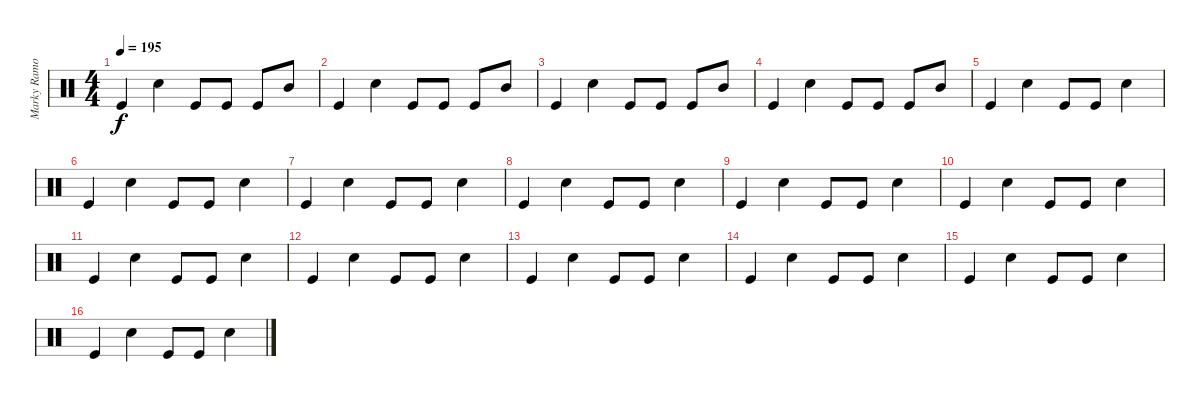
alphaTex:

\track ("Marky Ramone" "Marky Ramo") {instrument percussion}
\staff {score}
\articulation defaults
\ts (4 4)
\tempo 195
\clef neutral
\ks c "Kick (hit)".4{dy f} "Electric Snare (hit)".4 "Kick (hit)".8 "Kick (hit)".8 "Kick (hit)".8 "Mid Tom (hit)".8
|
"Kick (hit)".4 "Electric Snare (hit)".4 "Kick (hit)".8 "Kick (hit)".8 "Kick (hit)".8 "Mid Tom (hit)".8 |
"Kick (hit)".4 "Electric Snare (hit)".4 "Kick (hit)".8 "Kick (hit)".8 "Kick (hit)".8 "Mid Tom (hit)".8 |
"Kick (hit)".4 "Electric Snare (hit)".4 "Kick (hit)".8 "Kick (hit)".8 "Kick (hit)".8 "Mid Tom (hit)".8 |
"Kick (hit)".4 "Electric Snare (hit)".4 "Kick (hit)".8 "Kick (hit)".8 "Electric Snare (hit)".4 |
"Kick (hit)".4 "Electric Snare (hit)".4 "Kick (hit)".8 "Kick (hit)".8 "Electric Snare (hit)".4 |
"Kick (hit)".4 "Electric Snare (hit)".4 "Kick (hit)".8 "Kick (hit)".8 "Electric Snare (hit)".4 |
"Kick (hit)".4 "Electric Snare (hit)".4 "Kick (hit)".8 "Kick (hit)".8 "Electric Snare (hit)".4 |
"Kick (hit)".4 "Electric Snare (hit)".4 "Kick (hit)".8 "Kick (hit)".8 "Electric Snare (hit)".4 |
"Kick (hit)".4 "Electric Snare (hit)".4 "Kick (hit)".8 "Kick (hit)".8 "Electric Snare (hit)".4 |
"Kick (hit)".4 "Electric Snare (hit)".4 "Kick (hit)".8 "Kick (hit)".8 "Electric Snare (hit)".4 |
"Kick (hit)".4 "Electric Snare (hit)".4 "Kick (hit)".8 "Kick (hit)".8 "Electric Snare (hit)".4 |
"Kick (hit)".4 "Electric Snare (hit)".4 "Kick (hit)".8 "Kick (hit)".8 "Electric Snare (hit)".4 |
"Kick (hit)".4 "Electric Snare (hit)".4 "Kick (hit)".8 "Kick (hit)".8 "Electric Snare (hit)".4 |
"Kick (hit)".4 "Electric Snare (hit)".4 "Kick (hit)".8 "Kick (hit)".8 "Electric Snare (hit)".4 |
"Kick (hit)".4 "Electric Snare (hit)".4 "Kick (hit)".8 "Kick (hit)".8 "Electric Snare (hit)".4
